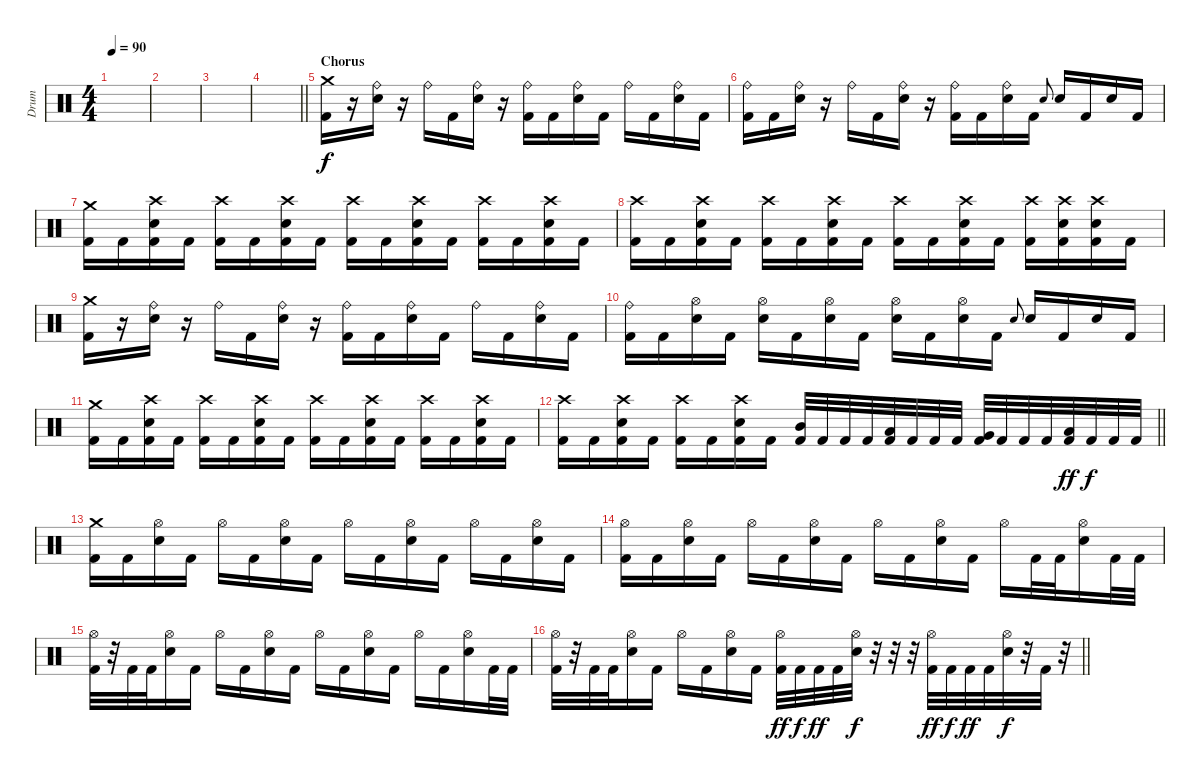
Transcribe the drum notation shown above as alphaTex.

\track ("Drum" "Drum") {instrument percussion}
\staff {score}
\articulation defaults
\ts (4 4)
\tempo 90
\clef neutral
\ks c
|
|
|
\barLineRight lightlight
|
\section ("" "Chorus")
("Crash medium (hit)" "Kick (hit) 2").16 r.16 ("Ride (bell)" "Electric Snare (hit)").16 r.16 "Ride (bell)".16 "Kick (hit) 2".16 ("Ride (bell)" "Electric Snare (hit)").16 r.16 ("Ride (bell)" "Kick (hit) 2").16 "Kick (hit) 2".16 ("Ride (bell)" "Electric Snare (hit)").16 "Kick (hit) 2".16 "Ride (bell)".16 "Kick (hit) 2".16 ("Ride (bell)" "Electric Snare (hit)").16 "Kick (hit) 2".16 |
("Ride (bell)" "Kick (hit) 2").16 "Kick (hit) 2".16 ("Ride (bell)" "Electric Snare (hit)").16 r.16 "Ride (bell)".16 "Kick (hit) 2".16 ("Ride (bell)" "Electric Snare (hit)").16 r.16 ("Ride (bell)" "Kick (hit) 2").16 "Kick (hit) 2".16 ("Ride (bell)" "Electric Snare (hit)").16 "Kick (hit) 2".16 "Electric Snare (hit)".8{gr onbeat} "Electric Snare (hit)".16 "Kick (hit) 2".16 "Electric Snare (hit)".16 "Kick (hit) 2".16 |
("Crash medium (hit)" "Kick (hit) 2").16 "Kick (hit) 2".16 ("Crash high (hit)" "Electric Snare (hit)" "Kick (hit) 2").16 "Kick (hit) 2".16 ("Crash high (hit)" "Kick (hit) 2").16 "Kick (hit) 2".16 ("Crash high (hit)" "Electric Snare (hit)" "Kick (hit) 2").16 "Kick (hit) 2".16 ("Crash high (hit)" "Kick (hit) 2").16 "Kick (hit) 2".16 ("Crash high (hit)" "Electric Snare (hit)" "Kick (hit) 2").16 "Kick (hit) 2".16 ("Crash high (hit)" "Kick (hit) 2").16 "Kick (hit) 2".16 ("Crash high (hit)" "Electric Snare (hit)" "Kick (hit) 2").16 "Kick (hit) 2".16 |
("Crash high (hit)" "Kick (hit) 2").16 "Kick (hit) 2".16 ("Crash high (hit)" "Electric Snare (hit)" "Kick (hit) 2").16 "Kick (hit) 2".16 ("Crash high (hit)" "Kick (hit) 2").16 "Kick (hit) 2".16 ("Crash high (hit)" "Electric Snare (hit)" "Kick (hit) 2").16 "Kick (hit) 2".16 ("Crash high (hit)" "Kick (hit) 2").16 "Kick (hit) 2".16 ("Crash high (hit)" "Electric Snare (hit)" "Kick (hit) 2").16 "Kick (hit) 2".16 ("Crash high (hit)" "Kick (hit) 2").16 ("Crash high (hit)" "Electric Snare (hit)" "Kick (hit) 2").16 ("Crash high (hit)" "Electric Snare (hit)" "Kick (hit) 2").16 "Kick (hit) 2".16 |
("Crash medium (hit)" "Kick (hit) 2").16 r.16 ("Ride (bell)" "Electric Snare (hit)").16 r.16 "Ride (bell)".16 "Kick (hit) 2".16 ("Ride (bell)" "Electric Snare (hit)").16 r.16 ("Ride (bell)" "Kick (hit) 2").16 "Kick (hit) 2".16 ("Ride (bell)" "Electric Snare (hit)").16 "Kick (hit) 2".16 "Ride (bell)".16 "Kick (hit) 2".16 ("Ride (bell)" "Electric Snare (hit)").16 "Kick (hit) 2".16 |
("Ride (bell)" "Kick (hit) 2").16 "Kick (hit) 2".16 ("Hi-Hat (open)" "Electric Snare (hit)").16 "Kick (hit) 2".16 ("Hi-Hat (open)" "Electric Snare (hit)").16 "Kick (hit) 2".16 ("Hi-Hat (open)" "Electric Snare (hit)").16 "Kick (hit) 2".16 ("Hi-Hat (open)" "Electric Snare (hit)").16 "Kick (hit) 2".16 ("Hi-Hat (open)" "Electric Snare (hit)").16 "Kick (hit) 2".16 "Electric Snare (hit)".8{gr onbeat} "Electric Snare (hit)".16 "Kick (hit) 2".16 "Electric Snare (hit)".16 "Kick (hit) 2".16 |
("Crash medium (hit)" "Kick (hit) 2").16 "Kick (hit) 2".16 ("Crash high (hit)" "Electric Snare (hit)" "Kick (hit) 2").16 "Kick (hit) 2".16 ("Crash high (hit)" "Kick (hit) 2").16 "Kick (hit) 2".16 ("Crash high (hit)" "Electric Snare (hit)" "Kick (hit) 2").16 "Kick (hit) 2".16 ("Crash high (hit)" "Kick (hit) 2").16 "Kick (hit) 2".16 ("Crash high (hit)" "Electric Snare (hit)" "Kick (hit) 2").16 "Kick (hit) 2".16 ("Crash high (hit)" "Kick (hit) 2").16 "Kick (hit) 2".16 ("Crash high (hit)" "Electric Snare (hit)" "Kick (hit) 2").16 "Kick (hit) 2".16 |
\barLineRight lightlight
("Crash high (hit)" "Kick (hit) 2").16 "Kick (hit) 2".16 ("Crash high (hit)" "Electric Snare (hit)" "Kick (hit) 2").16 "Kick (hit) 2".16 ("Crash high (hit)" "Kick (hit) 2").16 "Kick (hit) 2".16 ("Crash high (hit)" "Electric Snare (hit)" "Kick (hit) 2").16 "Kick (hit) 2".16 ("Mid Tom (hit)" "Kick (hit) 2").32 "Kick (hit) 2".32 "Kick (hit) 2".32 "Kick (hit) 2".32 ("Low Tom (hit)" "Kick (hit) 2").32 "Kick (hit) 2".32 "Kick (hit) 2".32 "Kick (hit) 2".32 ("Very Low Tom (hit)" "Kick (hit) 2").32 "Kick (hit) 2".32 "Kick (hit) 2".32 "Kick (hit) 2".32 ("Low Floor Tom (hit)" "Kick (hit) 2").32{dy ff} "Kick (hit) 2".32{dy f} "Kick (hit) 2".32 "Kick (hit) 2".32 |
\section ("" " ")
("Crash medium (hit)" "Kick (hit) 2").16 "Kick (hit) 2".16 ("Hi-Hat (open)" "Electric Snare (hit)").16 "Kick (hit) 2".16 "Hi-Hat (open)".16 "Kick (hit) 2".16 ("Hi-Hat (open)" "Electric Snare (hit)").16 "Kick (hit) 2".16 "Hi-Hat (open)".16 "Kick (hit) 2".16 ("Hi-Hat (open)" "Electric Snare (hit)").16 "Kick (hit) 2".16 "Hi-Hat (open)".16 "Kick (hit) 2".16 ("Hi-Hat (open)" "Electric Snare (hit)").16 "Kick (hit) 2".16 |
("Hi-Hat (open)" "Kick (hit) 2").16 "Kick (hit) 2".16 ("Hi-Hat (open)" "Electric Snare (hit)").16 "Kick (hit) 2".16 "Hi-Hat (open)".16 "Kick (hit) 2".16 ("Hi-Hat (open)" "Electric Snare (hit)").16 "Kick (hit) 2".16 "Hi-Hat (open)".16 "Kick (hit) 2".16 ("Hi-Hat (open)" "Electric Snare (hit)").16 "Kick (hit) 2".16 "Hi-Hat (open)".16 "Kick (hit) 2".32 "Kick (hit) 2".32 ("Hi-Hat (open)" "Electric Snare (hit)").16 "Kick (hit) 2".32 "Kick (hit) 2".32 |
("Hi-Hat (open)" "Kick (hit) 2").32 r.32 "Kick (hit) 2".32 "Kick (hit) 2".32 ("Hi-Hat (open)" "Electric Snare (hit)").16 "Kick (hit) 2".16 "Hi-Hat (open)".16 "Kick (hit) 2".16 ("Hi-Hat (open)" "Electric Snare (hit)").16 "Kick (hit) 2".16 "Hi-Hat (open)".16 "Kick (hit) 2".16 ("Hi-Hat (open)" "Electric Snare (hit)").16 "Kick (hit) 2".16 "Hi-Hat (open)".16 "Kick (hit) 2".16 ("Hi-Hat (open)" "Electric Snare (hit)").16 "Kick (hit) 2".32 "Kick (hit) 2".32 |
\barLineRight lightlight
("Hi-Hat (open)" "Kick (hit) 2").32 r.32 "Kick (hit) 2".32 "Kick (hit) 2".32 ("Hi-Hat (open)" "Electric Snare (hit)").16 "Kick (hit) 2".16 "Hi-Hat (open)".16 "Kick (hit) 2".16 ("Hi-Hat (open)" "Electric Snare (hit)").16 "Kick (hit) 2".16 ("Hi-Hat (open)" "Kick (hit) 2").32{dy ff} "Kick (hit) 2".32{dy f} "Kick (hit) 2".32{dy ff} "Kick (hit) 2".32 ("Hi-Hat (open)" "Electric Snare (hit)").32{dy f} r.32 r.32 r.32 ("Hi-Hat (open)" "Kick (hit) 2").32{dy ff} "Kick (hit) 2".32{dy f} "Kick (hit) 2".32{dy ff} "Kick (hit) 2".32 ("Hi-Hat (open)" "Electric Snare (hit)").32{dy f} r.32 "Kick (hit) 2".32 r.32
